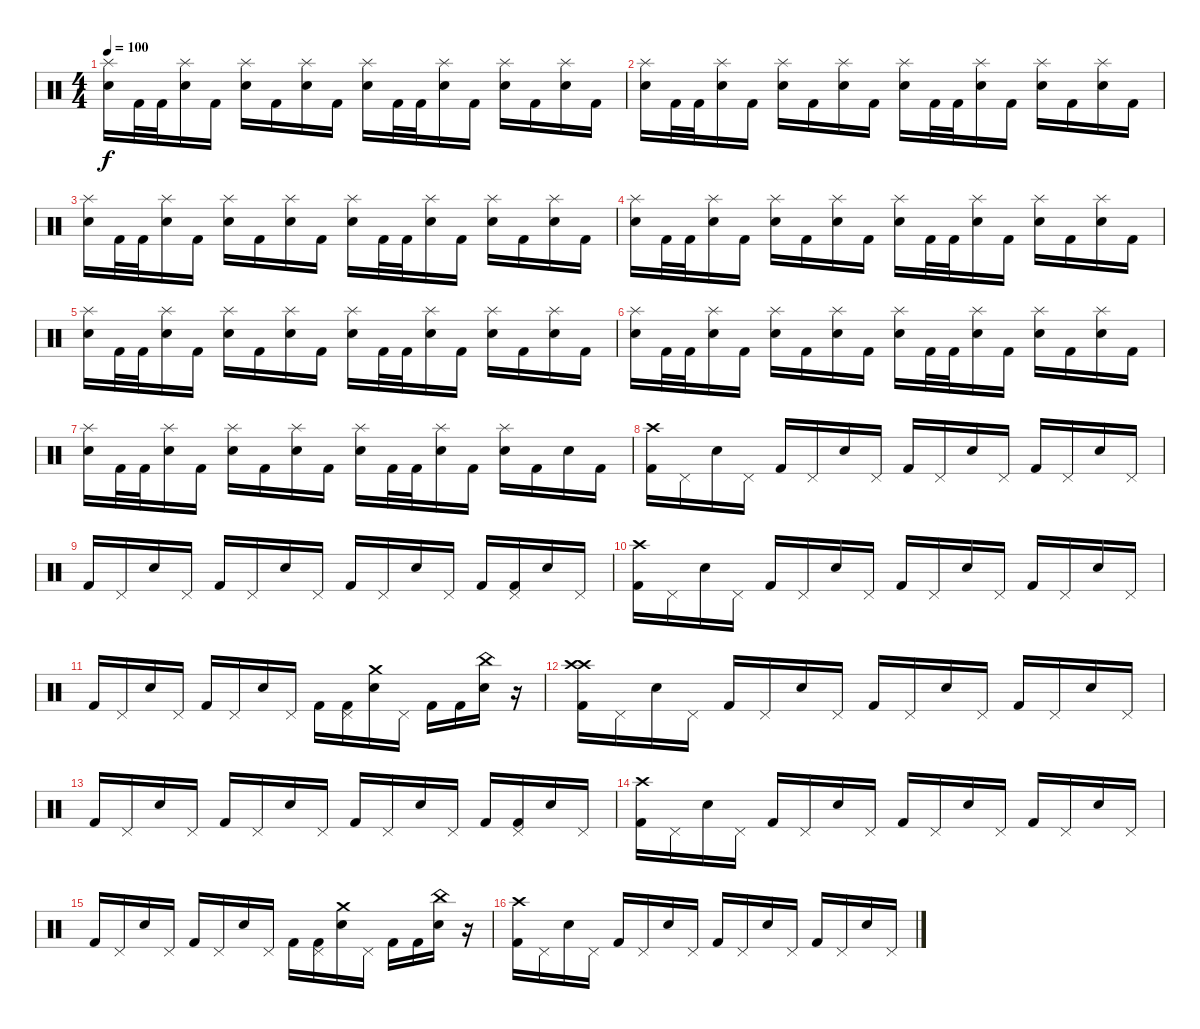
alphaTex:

\track "" {instrument percussion}
\staff {score}
\articulation defaults
\ts (4 4)
\tempo 100
\clef neutral
\ks c
("Splash (hit)" "Snare (hit) 2").16{dy f} "Kick (hit) 2".32 "Kick (hit) 2".32 ("Splash (hit)" "Snare (hit) 2").16 "Kick (hit) 2".16 ("Splash (hit)" "Snare (hit) 2").16 "Kick (hit) 2".16 ("Splash (hit)" "Snare (hit) 2").16 "Kick (hit) 2".16 ("Splash (hit)" "Snare (hit) 2").16 "Kick (hit) 2".32 "Kick (hit) 2".32 ("Splash (hit)" "Snare (hit) 2").16 "Kick (hit) 2".16 ("Splash (hit)" "Snare (hit) 2").16 "Kick (hit) 2".16 ("Splash (hit)" "Snare (hit) 2").16 "Kick (hit) 2".16 |
("Splash (hit)" "Snare (hit) 2").16 "Kick (hit) 2".32 "Kick (hit) 2".32 ("Splash (hit)" "Snare (hit) 2").16 "Kick (hit) 2".16 ("Splash (hit)" "Snare (hit) 2").16 "Kick (hit) 2".16 ("Splash (hit)" "Snare (hit) 2").16 "Kick (hit) 2".16 ("Splash (hit)" "Snare (hit) 2").16 "Kick (hit) 2".32 "Kick (hit) 2".32 ("Splash (hit)" "Snare (hit) 2").16 "Kick (hit) 2".16 ("Splash (hit)" "Snare (hit) 2").16 "Kick (hit) 2".16 ("Splash (hit)" "Snare (hit) 2").16 "Kick (hit) 2".16 |
("Splash (hit)" "Snare (hit) 2").16 "Kick (hit) 2".32 "Kick (hit) 2".32 ("Splash (hit)" "Snare (hit) 2").16 "Kick (hit) 2".16 ("Splash (hit)" "Snare (hit) 2").16 "Kick (hit) 2".16 ("Splash (hit)" "Snare (hit) 2").16 "Kick (hit) 2".16 ("Splash (hit)" "Snare (hit) 2").16 "Kick (hit) 2".32 "Kick (hit) 2".32 ("Splash (hit)" "Snare (hit) 2").16 "Kick (hit) 2".16 ("Splash (hit)" "Snare (hit) 2").16 "Kick (hit) 2".16 ("Splash (hit)" "Snare (hit) 2").16 "Kick (hit) 2".16 |
("Splash (hit)" "Snare (hit) 2").16 "Kick (hit) 2".32 "Kick (hit) 2".32 ("Splash (hit)" "Snare (hit) 2").16 "Kick (hit) 2".16 ("Splash (hit)" "Snare (hit) 2").16 "Kick (hit) 2".16 ("Splash (hit)" "Snare (hit) 2").16 "Kick (hit) 2".16 ("Splash (hit)" "Snare (hit) 2").16 "Kick (hit) 2".32 "Kick (hit) 2".32 ("Splash (hit)" "Snare (hit) 2").16 "Kick (hit) 2".16 ("Splash (hit)" "Snare (hit) 2").16 "Kick (hit) 2".16 ("Splash (hit)" "Snare (hit) 2").16 "Kick (hit) 2".16 |
("Splash (hit)" "Snare (hit) 2").16 "Kick (hit) 2".32 "Kick (hit) 2".32 ("Splash (hit)" "Snare (hit) 2").16 "Kick (hit) 2".16 ("Splash (hit)" "Snare (hit) 2").16 "Kick (hit) 2".16 ("Splash (hit)" "Snare (hit) 2").16 "Kick (hit) 2".16 ("Splash (hit)" "Snare (hit) 2").16 "Kick (hit) 2".32 "Kick (hit) 2".32 ("Splash (hit)" "Snare (hit) 2").16 "Kick (hit) 2".16 ("Splash (hit)" "Snare (hit) 2").16 "Kick (hit) 2".16 ("Splash (hit)" "Snare (hit) 2").16 "Kick (hit) 2".16 |
("Splash (hit)" "Snare (hit) 2").16 "Kick (hit) 2".32 "Kick (hit) 2".32 ("Splash (hit)" "Snare (hit) 2").16 "Kick (hit) 2".16 ("Splash (hit)" "Snare (hit) 2").16 "Kick (hit) 2".16 ("Splash (hit)" "Snare (hit) 2").16 "Kick (hit) 2".16 ("Splash (hit)" "Snare (hit) 2").16 "Kick (hit) 2".32 "Kick (hit) 2".32 ("Splash (hit)" "Snare (hit) 2").16 "Kick (hit) 2".16 ("Splash (hit)" "Snare (hit) 2").16 "Kick (hit) 2".16 ("Splash (hit)" "Snare (hit) 2").16 "Kick (hit) 2".16 |
("Splash (hit)" "Snare (hit) 2").16 "Kick (hit) 2".32 "Kick (hit) 2".32 ("Splash (hit)" "Snare (hit) 2").16 "Kick (hit) 2".16 ("Splash (hit)" "Snare (hit) 2").16 "Kick (hit) 2".16 ("Splash (hit)" "Snare (hit) 2").16 "Kick (hit) 2".16 ("Splash (hit)" "Snare (hit) 2").16 "Kick (hit) 2".32 "Kick (hit) 2".32 ("Splash (hit)" "Snare (hit) 2").16 "Kick (hit) 2".16 ("Splash (hit)" "Snare (hit) 2").16 "Kick (hit) 2".16 "Snare (hit) 2".16 "Kick (hit) 2".16 |
("Crash high (hit)" "Kick (hit) 2").16 "Pedal Hi-Hat (hit)".16 "Snare (hit) 2".16 "Pedal Hi-Hat (hit)".16 "Kick (hit) 2".16 "Pedal Hi-Hat (hit)".16 "Snare (hit) 2".16 "Pedal Hi-Hat (hit)".16 "Kick (hit) 2".16 "Pedal Hi-Hat (hit)".16 "Snare (hit) 2".16 "Pedal Hi-Hat (hit)".16 "Kick (hit) 2".16 "Pedal Hi-Hat (hit)".16 "Snare (hit) 2".16 "Pedal Hi-Hat (hit)".16 |
"Kick (hit) 2".16 "Pedal Hi-Hat (hit)".16 "Snare (hit) 2".16 "Pedal Hi-Hat (hit)".16 "Kick (hit) 2".16 "Pedal Hi-Hat (hit)".16 "Snare (hit) 2".16 "Pedal Hi-Hat (hit)".16 "Kick (hit) 2".16 "Pedal Hi-Hat (hit)".16 "Snare (hit) 2".16 "Pedal Hi-Hat (hit)".16 "Kick (hit) 2".16 ("Pedal Hi-Hat (hit)" "Kick (hit) 2").16 "Snare (hit) 2".16 "Pedal Hi-Hat (hit)".16 |
("Crash high (hit)" "Kick (hit) 2").16 "Pedal Hi-Hat (hit)".16 "Snare (hit) 2".16 "Pedal Hi-Hat (hit)".16 "Kick (hit) 2".16 "Pedal Hi-Hat (hit)".16 "Snare (hit) 2".16 "Pedal Hi-Hat (hit)".16 "Kick (hit) 2".16 "Pedal Hi-Hat (hit)".16 "Snare (hit) 2".16 "Pedal Hi-Hat (hit)".16 "Kick (hit) 2".16 "Pedal Hi-Hat (hit)".16 "Snare (hit) 2".16 "Pedal Hi-Hat (hit)".16 |
"Kick (hit) 2".16 "Pedal Hi-Hat (hit)".16 "Snare (hit) 2".16 "Pedal Hi-Hat (hit)".16 "Kick (hit) 2".16 "Pedal Hi-Hat (hit)".16 "Snare (hit) 2".16 "Pedal Hi-Hat (hit)".16 "Kick (hit) 2".16 ("Pedal Hi-Hat (hit)" "Kick (hit) 2").16 ("Crash medium (hit)" "Snare (hit) 2").16 "Pedal Hi-Hat (hit)".16 "Kick (hit) 2".16 "Kick (hit) 2".16 ("China (hit)" "Snare (hit) 2").16 r.16 |
("Crash high (hit)" "Crash high (hit)" "Kick (hit) 2").16 "Pedal Hi-Hat (hit)".16 "Snare (hit) 2".16 "Pedal Hi-Hat (hit)".16 "Kick (hit) 2".16 "Pedal Hi-Hat (hit)".16 "Snare (hit) 2".16 "Pedal Hi-Hat (hit)".16 "Kick (hit) 2".16 "Pedal Hi-Hat (hit)".16 "Snare (hit) 2".16 "Pedal Hi-Hat (hit)".16 "Kick (hit) 2".16 "Pedal Hi-Hat (hit)".16 "Snare (hit) 2".16 "Pedal Hi-Hat (hit)".16 |
"Kick (hit) 2".16 "Pedal Hi-Hat (hit)".16 "Snare (hit) 2".16 "Pedal Hi-Hat (hit)".16 "Kick (hit) 2".16 "Pedal Hi-Hat (hit)".16 "Snare (hit) 2".16 "Pedal Hi-Hat (hit)".16 "Kick (hit) 2".16 "Pedal Hi-Hat (hit)".16 "Snare (hit) 2".16 "Pedal Hi-Hat (hit)".16 "Kick (hit) 2".16 ("Pedal Hi-Hat (hit)" "Kick (hit) 2").16 "Snare (hit) 2".16 "Pedal Hi-Hat (hit)".16 |
("Crash high (hit)" "Kick (hit) 2").16 "Pedal Hi-Hat (hit)".16 "Snare (hit) 2".16 "Pedal Hi-Hat (hit)".16 "Kick (hit) 2".16 "Pedal Hi-Hat (hit)".16 "Snare (hit) 2".16 "Pedal Hi-Hat (hit)".16 "Kick (hit) 2".16 "Pedal Hi-Hat (hit)".16 "Snare (hit) 2".16 "Pedal Hi-Hat (hit)".16 "Kick (hit) 2".16 "Pedal Hi-Hat (hit)".16 "Snare (hit) 2".16 "Pedal Hi-Hat (hit)".16 |
"Kick (hit) 2".16 "Pedal Hi-Hat (hit)".16 "Snare (hit) 2".16 "Pedal Hi-Hat (hit)".16 "Kick (hit) 2".16 "Pedal Hi-Hat (hit)".16 "Snare (hit) 2".16 "Pedal Hi-Hat (hit)".16 "Kick (hit) 2".16 ("Pedal Hi-Hat (hit)" "Kick (hit) 2").16 ("Crash medium (hit)" "Snare (hit) 2").16 "Pedal Hi-Hat (hit)".16 "Kick (hit) 2".16 "Kick (hit) 2".16 ("China (hit)" "Snare (hit) 2").16 r.16 |
("Crash high (hit)" "Kick (hit) 2").16 "Pedal Hi-Hat (hit)".16 "Snare (hit) 2".16 "Pedal Hi-Hat (hit)".16 "Kick (hit) 2".16 "Pedal Hi-Hat (hit)".16 "Snare (hit) 2".16 "Pedal Hi-Hat (hit)".16 "Kick (hit) 2".16 "Pedal Hi-Hat (hit)".16 "Snare (hit) 2".16 "Pedal Hi-Hat (hit)".16 "Kick (hit) 2".16 "Pedal Hi-Hat (hit)".16 "Snare (hit) 2".16 "Pedal Hi-Hat (hit)".16
